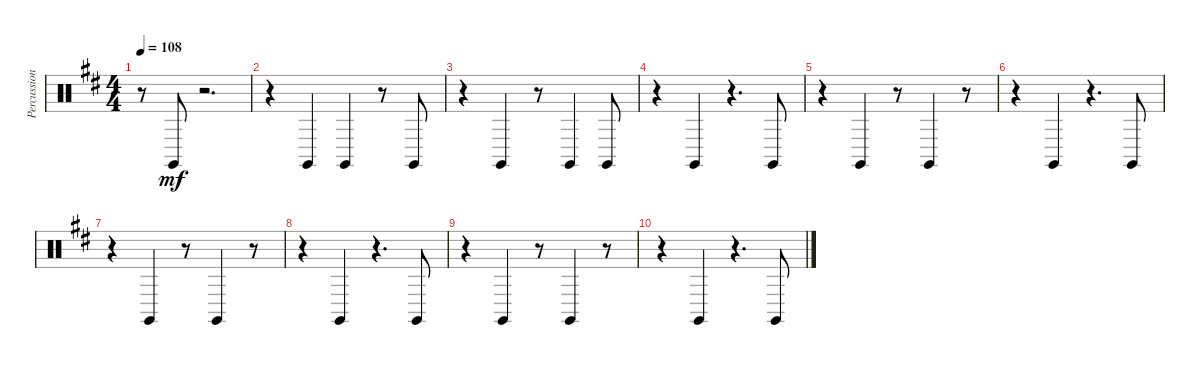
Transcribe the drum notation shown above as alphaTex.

\track ("Percussion" "Percussion") {instrument percussion}
\staff {score}
\articulation defaults
\ts (4 4)
\tempo 108
\clef neutral
\ks bminor
r.8{dy mf} "Claves (hit)".8 r.2{d} |
r.4 "Claves (hit)".4 "Claves (hit)".4 r.8 "Claves (hit)".8 |
r.4 "Claves (hit)".4 r.8 "Claves (hit)".4 "Claves (hit)".8 |
r.4 "Claves (hit)".4 r.4{d} "Claves (hit)".8 |
r.4 "Claves (hit)".4 r.8 "Claves (hit)".4 r.8 |
r.4 "Claves (hit)".4 r.4{d} "Claves (hit)".8 |
r.4 "Claves (hit)".4 r.8 "Claves (hit)".4 r.8 |
r.4 "Claves (hit)".4 r.4{d} "Claves (hit)".8 |
r.4 "Claves (hit)".4 r.8 "Claves (hit)".4 r.8 |
r.4 "Claves (hit)".4 r.4{d} "Claves (hit)".8
